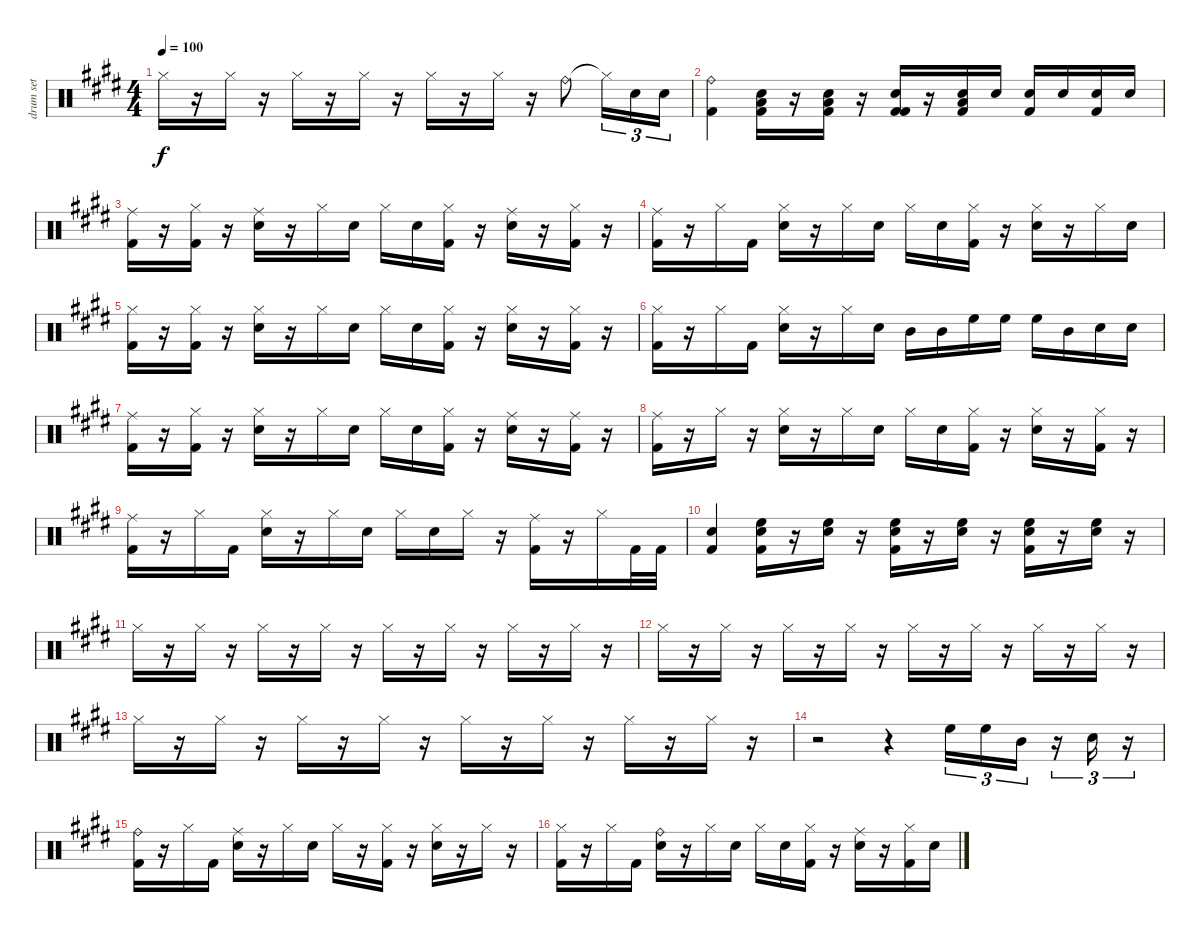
\track ("drum set" "drum set") {instrument percussion}
\staff {score}
\articulation defaults
\ts (4 4)
\tempo 100
\clef neutral
\ks e "Hi-Hat (closed)".16{dy f}
r.16 "Hi-Hat (closed)".16 r.16 "Hi-Hat (closed)".16 r.16 "Hi-Hat (closed)".16 r.16 "Hi-Hat (closed)".16 r.16 "Hi-Hat (closed)".16 r.16 "Ride (bell)".8 "Hi-Hat (closed)"{t}.16{tu (3 2)} "Snare (hit) 2".16{tu (3 2)} "Snare (hit) 2".16{tu (3 2)} |
("Ride (bell)" "Kick (hit) 2").4 ("Snare (hit) 2" "Low Tom (hit)" "Kick (hit) 2").16 r.16 ("Snare (hit) 2" "Low Tom (hit)" "Kick (hit) 2").16 r.16 ("Snare (hit) 2" "Kick (hit) 2" "Kick (hit) 2").16 r.16 ("Snare (hit) 2" "Low Tom (hit)" "Kick (hit) 2").16 "Snare (hit) 2".16 ("Snare (hit) 2" "Kick (hit) 2").16 "Snare (hit) 2".16 ("Snare (hit) 2" "Kick (hit) 2").16 "Snare (hit) 2".16 |
("Ride (middle)" "Kick (hit) 2").16 r.16 ("Hi-Hat (closed)" "Kick (hit) 2").16 r.16 ("Ride (middle)" "Snare (hit) 2").16 r.16 "Hi-Hat (closed)".16 "Snare (hit) 2".16 "Hi-Hat (closed)".16 "Snare (hit) 2".16 ("Hi-Hat (closed)" "Kick (hit) 2").16 r.16 ("Ride (middle)" "Snare (hit) 2").16 r.16 ("Hi-Hat (closed)" "Kick (hit) 2").16 r.16 |
("Ride (middle)" "Kick (hit) 2").16 r.16 "Hi-Hat (closed)".16 "Kick (hit) 2".16 ("Hi-Hat (closed)" "Snare (hit) 2").16 r.16 "Hi-Hat (closed)".16 "Snare (hit) 2".16 "Hi-Hat (closed)".16 "Snare (hit) 2".16 ("Hi-Hat (closed)" "Kick (hit) 2").16 r.16 ("Hi-Hat (closed)" "Snare (hit) 2").16 r.16 "Hi-Hat (closed)".16 "Snare (hit) 2".16 |
("Hi-Hat (closed)" "Kick (hit) 2").16 r.16 ("Hi-Hat (closed)" "Kick (hit) 2").16 r.16 ("Hi-Hat (closed)" "Snare (hit) 2").16 r.16 "Hi-Hat (closed)".16 "Snare (hit) 2".16 "Hi-Hat (closed)".16 "Snare (hit) 2".16 ("Hi-Hat (closed)" "Kick (hit) 2").16 r.16 ("Hi-Hat (closed)" "Snare (hit) 2").16 r.16 ("Hi-Hat (closed)" "Kick (hit) 2").16 r.16 |
("Hi-Hat (closed)" "Kick (hit) 2").16 r.16 "Hi-Hat (closed)".16 "Kick (hit) 2".16 ("Hi-Hat (closed)" "Snare (hit) 2").16 r.16 "Hi-Hat (closed)".16 "Snare (hit) 2".16 "Mid Tom (hit)".16 "Mid Tom (hit)".16 "High Floor Tom (hit)".16 "High Floor Tom (hit)".16 "High Floor Tom (hit)".16 "Mid Tom (hit)".16 "Snare (hit) 2".16 "Snare (hit) 2".16 |
("Ride (middle)" "Kick (hit) 2").16 r.16 ("Hi-Hat (closed)" "Kick (hit) 2").16 r.16 ("Hi-Hat (closed)" "Snare (hit) 2").16 r.16 "Hi-Hat (closed)".16 "Snare (hit) 2".16 "Hi-Hat (closed)".16 "Snare (hit) 2".16 ("Hi-Hat (closed)" "Kick (hit) 2").16 r.16 ("Ride (middle)" "Snare (hit) 2").16 r.16 ("Ride (middle)" "Kick (hit) 2").16 r.16 |
("Ride (middle)" "Kick (hit) 2").16 r.16 "Hi-Hat (closed)".16 r.16 ("Hi-Hat (closed)" "Snare (hit) 2").16 r.16 "Hi-Hat (closed)".16 "Snare (hit) 2".16 "Hi-Hat (closed)".16 "Snare (hit) 2".16 ("Hi-Hat (closed)" "Kick (hit) 2").16 r.16 ("Hi-Hat (closed)" "Snare (hit) 2").16 r.16 ("Hi-Hat (closed)" "Kick (hit) 2").16 r.16 |
("Ride (middle)" "Kick (hit) 2").16 r.16 "Hi-Hat (closed)".16 "Kick (hit) 2".16 ("Hi-Hat (closed)" "Snare (hit) 2").16 r.16 "Hi-Hat (closed)".16 "Snare (hit) 2".16 "Hi-Hat (closed)".16 "Snare (hit) 2".16 "Hi-Hat (closed)".16 r.16 ("Ride (middle)" "Kick (hit) 2").16 r.16 "Hi-Hat (closed)".16 "Kick (hit) 2".32 "Kick (hit) 2".32 |
("Snare (hit) 2" "Kick (hit) 2").4 ("Snare (hit) 2" "High Floor Tom (hit)" "Kick (hit) 2").16 r.16 ("Snare (hit) 2" "High Floor Tom (hit)").16 r.16 ("Snare (hit) 2" "High Floor Tom (hit)" "Kick (hit) 2").16 r.16 ("Snare (hit) 2" "High Floor Tom (hit)").16 r.16 ("Snare (hit) 2" "High Floor Tom (hit)" "Kick (hit) 2").16 r.16 ("Snare (hit) 2" "High Floor Tom (hit)").16 r.16 |
"Hi-Hat (closed)".16 r.16 "Hi-Hat (closed)".16 r.16 "Hi-Hat (closed)".16 r.16 "Hi-Hat (closed)".16 r.16 "Hi-Hat (closed)".16 r.16 "Hi-Hat (closed)".16 r.16 "Hi-Hat (closed)".16 r.16 "Hi-Hat (closed)".16 r.16 |
"Hi-Hat (closed)".16 r.16 "Hi-Hat (closed)".16 r.16 "Hi-Hat (closed)".16 r.16 "Hi-Hat (closed)".16 r.16 "Hi-Hat (closed)".16 r.16 "Hi-Hat (closed)".16 r.16 "Hi-Hat (closed)".16 r.16 "Hi-Hat (closed)".16 r.16 |
"Hi-Hat (closed)".16 r.16 "Hi-Hat (closed)".16 r.16 "Hi-Hat (closed)".16 r.16 "Hi-Hat (closed)".16 r.16 "Hi-Hat (closed)".16 r.16 "Hi-Hat (closed)".16 r.16 "Hi-Hat (closed)".16 r.16 "Hi-Hat (closed)".16 r.16 |
r.2 r.4 "High Floor Tom (hit)".16{tu (3 2)} "High Floor Tom (hit)".16{tu (3 2)} "Mid Tom (hit)".16{tu (3 2)} r.16{tu (3 2)} "Snare (hit) 2".16{tu (3 2)} r.16{tu (3 2)} |
("Ride (bell)" "Kick (hit) 2").16 r.16 "Hi-Hat (closed)".16 "Kick (hit) 2".16 ("Ride (middle)" "Snare (hit) 2").16 r.16 "Hi-Hat (closed)".16 "Snare (hit) 2".16 "Hi-Hat (closed)".16 r.16 ("Hi-Hat (closed)" "Kick (hit) 2").16 r.16 ("Hi-Hat (closed)" "Snare (hit) 2").16 r.16 "Hi-Hat (closed)".16 r.16 |
("Hi-Hat (closed)" "Kick (hit) 2").16 r.16 "Hi-Hat (closed)".16 "Kick (hit) 2".16 ("Ride (bell)" "Snare (hit) 2").16 r.16 "Hi-Hat (closed)".16 "Snare (hit) 2".16 "Hi-Hat (closed)".16 "Snare (hit) 2".16 ("Hi-Hat (closed)" "Kick (hit) 2").16 r.16 ("Ride (middle)" "Snare (hit) 2").16 r.16 ("Hi-Hat (closed)" "Kick (hit) 2").16 "Snare (hit) 2".16
